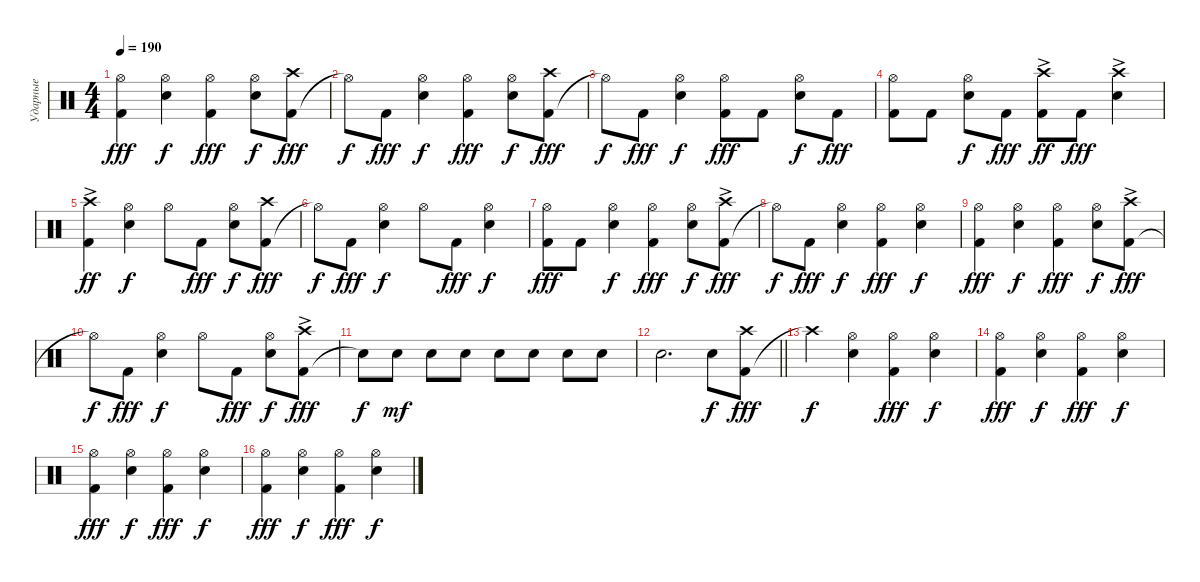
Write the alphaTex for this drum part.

\track ("Ударные" "Ударные") {instrument percussion}
\staff {score}
\articulation defaults
\ts (4 4)
\tempo 190
\clef neutral
\ks c
("Kick (hit) 2" "Hi-Hat (open)").4{dy fff} ("Snare (hit) 2" "Hi-Hat (open)").4{dy f} ("Kick (hit) 2" "Hi-Hat (open)").4{dy fff} ("Snare (hit) 2" "Hi-Hat (open)").8{dy f} ("Kick (hit) 2" "Crash high (hit)").8{dy fff} |
"Hi-Hat (open)"{t}.8{dy f} "Kick (hit) 2".8{dy fff} ("Snare (hit) 2" "Hi-Hat (open)").4{dy f} ("Kick (hit) 2" "Hi-Hat (open)").4{dy fff} ("Snare (hit) 2" "Hi-Hat (open)").8{dy f} ("Kick (hit) 2" "Crash high (hit)").8{dy fff} |
"Hi-Hat (open)"{t}.8{dy f} "Kick (hit) 2".8{dy fff} ("Snare (hit) 2" "Hi-Hat (open)").4{dy f} ("Kick (hit) 2" "Hi-Hat (open)").8{dy fff} "Kick (hit) 2".8 ("Snare (hit) 2" "Hi-Hat (open)").8{dy f} "Kick (hit) 2".8{dy fff} |
("Kick (hit) 2" "Hi-Hat (open)").8 "Kick (hit) 2".8 ("Snare (hit) 2" "Hi-Hat (open)").8{dy f} "Kick (hit) 2".8{dy fff} ("Kick (hit) 2" "Crash high (hit)"{ac}).8{dy ff} "Kick (hit) 2".8{dy fff} ("Snare (hit) 2" "Crash high (hit)"{ac}).4 |
("Kick (hit) 2" "Crash high (hit)"{ac}).4{dy ff} ("Snare (hit) 2" "Hi-Hat (open)").4{dy f} "Hi-Hat (open)".8 "Kick (hit) 2".8{dy fff} ("Snare (hit) 2" "Hi-Hat (open)").8{dy f} ("Kick (hit) 2" "Crash high (hit)").8{dy fff} |
"Hi-Hat (open)"{t}.8{dy f} "Kick (hit) 2".8{dy fff} ("Snare (hit) 2" "Hi-Hat (open)").4{dy f} "Hi-Hat (open)".8 "Kick (hit) 2".8{dy fff} ("Snare (hit) 2" "Hi-Hat (open)").4{dy f} |
("Kick (hit) 2" "Hi-Hat (open)").8{dy fff} "Kick (hit) 2".8 ("Snare (hit) 2" "Hi-Hat (open)").4{dy f} ("Kick (hit) 2" "Hi-Hat (open)").4{dy fff} ("Snare (hit) 2" "Hi-Hat (open)").8{dy f} ("Kick (hit) 2" "Crash high (hit)"{ac}).8{dy fff} |
"Hi-Hat (open)"{t}.8{dy f} "Kick (hit) 2".8{dy fff} ("Snare (hit) 2" "Hi-Hat (open)").4{dy f} ("Kick (hit) 2" "Hi-Hat (open)").4{dy fff} ("Snare (hit) 2" "Hi-Hat (open)").4{dy f} |
("Kick (hit) 2" "Hi-Hat (open)").4{dy fff} ("Snare (hit) 2" "Hi-Hat (open)").4{dy f} ("Kick (hit) 2" "Hi-Hat (open)").4{dy fff} ("Snare (hit) 2" "Hi-Hat (open)").8{dy f} ("Kick (hit) 2" "Crash high (hit)"{ac}).8{dy fff} |
"Hi-Hat (open)"{t}.8{dy f} "Kick (hit) 2".8{dy fff} ("Snare (hit) 2" "Hi-Hat (open)").4{dy f} "Hi-Hat (open)".8 "Kick (hit) 2".8{dy fff} ("Snare (hit) 2" "Hi-Hat (open)").8{dy f} ("Kick (hit) 2" "Crash high (hit)"{ac}).8{dy fff} |
"Snare (hit)"{t}.8{dy f} "Snare (hit) 2".8{dy mf} "Snare (hit) 2".8 "Snare (hit) 2".8 "Snare (hit) 2".8 "Snare (hit) 2".8 "Snare (hit) 2".8 "Snare (hit) 2".8 |
\barLineRight lightlight "Snare (hit) 2".2{d} "Snare (hit) 2".8{dy f}
("Kick (hit) 2" "Crash high (hit)").8{dy fff} |
"Crash high (hit)"{t}.4{dy f} ("Snare (hit) 2" "Hi-Hat (open)").4 ("Kick (hit) 2" "Hi-Hat (open)").4{dy fff} ("Snare (hit) 2" "Hi-Hat (open)").4{dy f} |
("Kick (hit) 2" "Hi-Hat (open)").4{dy fff} ("Snare (hit) 2" "Hi-Hat (open)").4{dy f} ("Kick (hit) 2" "Hi-Hat (open)").4{dy fff} ("Snare (hit) 2" "Hi-Hat (open)").4{dy f} |
("Kick (hit) 2" "Hi-Hat (open)").4{dy fff} ("Snare (hit) 2" "Hi-Hat (open)").4{dy f} ("Kick (hit) 2" "Hi-Hat (open)").4{dy fff} ("Snare (hit) 2" "Hi-Hat (open)").4{dy f} |
("Kick (hit) 2" "Hi-Hat (open)").4{dy fff} ("Snare (hit) 2" "Hi-Hat (open)").4{dy f} ("Kick (hit) 2" "Hi-Hat (open)").4{dy fff} ("Snare (hit) 2" "Hi-Hat (open)").4{dy f}
